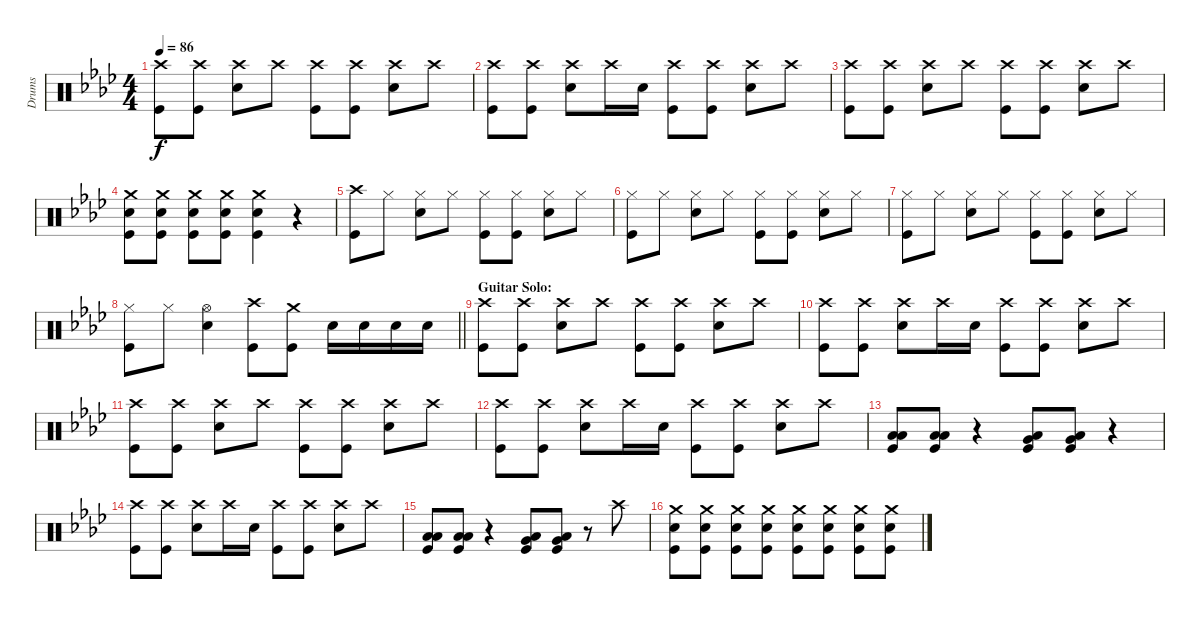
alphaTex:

\track ("Drums" "Drums") {instrument percussion}
\staff {score}
\articulation defaults
\ts (4 4)
\tempo 86
\clef neutral
\ks ab
("Crash high (hit)" "Kick (hit)").8{dy f} ("Crash high (hit)" "Kick (hit)").8 ("Crash high (hit)" "Snare (hit) 2").8 "Crash high (hit)".8 ("Crash high (hit)" "Kick (hit)").8 ("Crash high (hit)" "Kick (hit)").8 ("Crash high (hit)" "Snare (hit) 2").8 "Crash high (hit)".8 |
("Crash high (hit)" "Kick (hit)").8 ("Crash high (hit)" "Kick (hit)").8 ("Crash high (hit)" "Snare (hit) 2").8 "Crash high (hit)".16 "Snare (hit) 2".16 ("Kick (hit)" "Crash high (hit)").8 ("Kick (hit)" "Crash high (hit)").8 ("Snare (hit) 2" "Crash high (hit)").8 "Crash high (hit)".8 |
("Crash high (hit)" "Kick (hit)").8 ("Crash high (hit)" "Kick (hit)").8 ("Crash high (hit)" "Snare (hit) 2").8 "Crash high (hit)".8 ("Crash high (hit)" "Kick (hit)").8 ("Crash high (hit)" "Kick (hit)").8 ("Crash high (hit)" "Snare (hit) 2").8 "Crash high (hit)".8 |
("Crash medium (hit)" "Kick (hit)" "Snare (hit) 2").8 ("Crash medium (hit)" "Kick (hit)" "Snare (hit) 2").8 ("Crash medium (hit)" "Kick (hit)" "Snare (hit) 2").8 ("Crash medium (hit)" "Kick (hit)" "Snare (hit) 2").8 ("Crash medium (hit)" "Kick (hit)" "Snare (hit) 2").4 r.4 |
("Crash high (hit)" "Kick (hit)").8 "Hi-Hat (closed)".8 ("Hi-Hat (closed)" "Snare (hit) 2").8 "Hi-Hat (closed)".8 ("Hi-Hat (closed)" "Kick (hit)").8 ("Hi-Hat (closed)" "Kick (hit)").8 ("Hi-Hat (closed)" "Snare (hit) 2").8 "Hi-Hat (closed)".8 |
("Hi-Hat (closed)" "Kick (hit)").8 "Hi-Hat (closed)".8 ("Hi-Hat (closed)" "Snare (hit) 2").8 "Hi-Hat (closed)".8 ("Hi-Hat (closed)" "Kick (hit)").8 ("Hi-Hat (closed)" "Kick (hit)").8 ("Hi-Hat (closed)" "Snare (hit) 2").8 "Hi-Hat (closed)".8 |
("Hi-Hat (closed)" "Kick (hit)").8 "Hi-Hat (closed)".8 ("Hi-Hat (closed)" "Snare (hit) 2").8 "Hi-Hat (closed)".8 ("Hi-Hat (closed)" "Kick (hit)").8 ("Hi-Hat (closed)" "Kick (hit)").8 ("Hi-Hat (closed)" "Snare (hit) 2").8 "Hi-Hat (closed)".8 |
\barLineRight lightlight
("Hi-Hat (closed)" "Kick (hit)").8 "Hi-Hat (closed)".8 ("Hi-Hat (open)" "Snare (hit) 2").4 ("Crash high (hit)" "Kick (hit)").8 ("Crash medium (hit)" "Kick (hit)").8 "Snare (hit) 2".16 "Snare (hit) 2".16 "Snare (hit) 2".16 "Snare (hit) 2".16 |
\section ("" "Guitar Solo:")
("Crash high (hit)" "Kick (hit)").8 ("Crash high (hit)" "Kick (hit)").8 ("Crash high (hit)" "Snare (hit) 2").8 "Crash high (hit)".8 ("Crash high (hit)" "Kick (hit)").8 ("Crash high (hit)" "Kick (hit)").8 ("Crash high (hit)" "Snare (hit) 2").8 "Crash high (hit)".8 |
("Crash high (hit)" "Kick (hit)").8 ("Crash high (hit)" "Kick (hit)").8 ("Crash high (hit)" "Snare (hit) 2").8 "Crash high (hit)".16 "Snare (hit) 2".16 ("Kick (hit)" "Crash high (hit)").8 ("Kick (hit)" "Crash high (hit)").8 ("Snare (hit) 2" "Crash high (hit)").8 "Crash high (hit)".8 |
("Crash high (hit)" "Kick (hit)").8 ("Crash high (hit)" "Kick (hit)").8 ("Crash high (hit)" "Snare (hit) 2").8 "Crash high (hit)".8 ("Crash high (hit)" "Kick (hit)").8 ("Crash high (hit)" "Kick (hit)").8 ("Crash high (hit)" "Snare (hit) 2").8 "Crash high (hit)".8 |
("Crash high (hit)" "Kick (hit)").8 ("Crash high (hit)" "Kick (hit)").8 ("Crash high (hit)" "Snare (hit) 2").8 "Crash high (hit)".16 "Snare (hit) 2".16 ("Kick (hit)" "Crash high (hit)").8 ("Kick (hit)" "Crash high (hit)").8 ("Snare (hit) 2" "Crash high (hit)").8 "Crash high (hit)".8 |
("Kick (hit)" "Low Floor Tom (hit)" "Low Tom (hit)").8 ("Kick (hit)" "Low Floor Tom (hit)" "Low Tom (hit)").8 r.4 ("Kick (hit)" "Low Floor Tom (hit)" "Very Low Tom (hit)").8 ("Kick (hit)" "Low Floor Tom (hit)" "Very Low Tom (hit)").8 r.4 |
("Crash high (hit)" "Kick (hit)").8 ("Crash high (hit)" "Kick (hit)").8 ("Crash high (hit)" "Snare (hit) 2").8 "Crash high (hit)".16 "Snare (hit) 2".16 ("Kick (hit)" "Crash high (hit)").8 ("Kick (hit)" "Crash high (hit)").8 ("Snare (hit) 2" "Crash high (hit)").8 "Crash high (hit)".8 |
("Kick (hit)" "Low Floor Tom (hit)" "Low Tom (hit)").8 ("Kick (hit)" "Low Floor Tom (hit)" "Low Tom (hit)").8 r.4 ("Kick (hit)" "Low Floor Tom (hit)" "Very Low Tom (hit)").8 ("Kick (hit)" "Low Floor Tom (hit)" "Very Low Tom (hit)").8 r.8 "Crash high (hit)".8 |
("Crash medium (hit)" "Snare (hit) 2" "Kick (hit)").8 ("Crash medium (hit)" "Snare (hit) 2" "Kick (hit)").8 ("Crash medium (hit)" "Snare (hit) 2" "Kick (hit)").8 ("Crash medium (hit)" "Snare (hit) 2" "Kick (hit)").8 ("Crash medium (hit)" "Snare (hit) 2" "Kick (hit)").8 ("Crash medium (hit)" "Snare (hit) 2" "Kick (hit)").8 ("Crash medium (hit)" "Snare (hit) 2" "Kick (hit)").8 ("Crash medium (hit)" "Snare (hit) 2" "Kick (hit)").8
